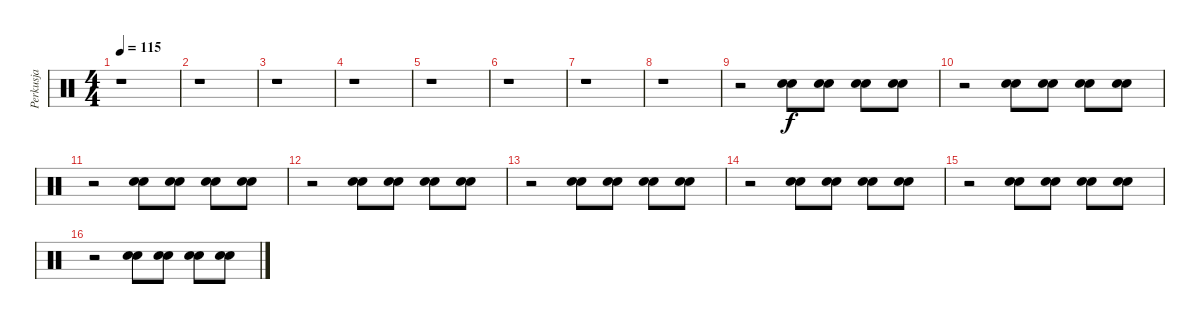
\track ("Perkusja" "Perkusja") {instrument percussion}
\staff {score}
\articulation defaults
\ts (4 4)
\tempo 115
\clef neutral
\ks c
r.1{dy f} |
r.1 |
r.1 |
r.1 |
r.1 |
r.1 |
r.1 |
r.1 |
r.2 ("Hand Clap (hit)" "Hand Clap (hit)").8 ("Hand Clap (hit)" "Hand Clap (hit)").8 ("Hand Clap (hit)" "Hand Clap (hit)").8 ("Hand Clap (hit)" "Hand Clap (hit)").8 |
r.2 ("Hand Clap (hit)" "Hand Clap (hit)").8 ("Hand Clap (hit)" "Hand Clap (hit)").8 ("Hand Clap (hit)" "Hand Clap (hit)").8 ("Hand Clap (hit)" "Hand Clap (hit)").8 |
r.2 ("Hand Clap (hit)" "Hand Clap (hit)").8 ("Hand Clap (hit)" "Hand Clap (hit)").8 ("Hand Clap (hit)" "Hand Clap (hit)").8 ("Hand Clap (hit)" "Hand Clap (hit)").8 |
r.2 ("Hand Clap (hit)" "Hand Clap (hit)").8 ("Hand Clap (hit)" "Hand Clap (hit)").8 ("Hand Clap (hit)" "Hand Clap (hit)").8 ("Hand Clap (hit)" "Hand Clap (hit)").8 |
r.2 ("Hand Clap (hit)" "Hand Clap (hit)").8 ("Hand Clap (hit)" "Hand Clap (hit)").8 ("Hand Clap (hit)" "Hand Clap (hit)").8 ("Hand Clap (hit)" "Hand Clap (hit)").8 |
r.2 ("Hand Clap (hit)" "Hand Clap (hit)").8 ("Hand Clap (hit)" "Hand Clap (hit)").8 ("Hand Clap (hit)" "Hand Clap (hit)").8 ("Hand Clap (hit)" "Hand Clap (hit)").8 |
r.2 ("Hand Clap (hit)" "Hand Clap (hit)").8 ("Hand Clap (hit)" "Hand Clap (hit)").8 ("Hand Clap (hit)" "Hand Clap (hit)").8 ("Hand Clap (hit)" "Hand Clap (hit)").8 |
r.2 ("Hand Clap (hit)" "Hand Clap (hit)").8 ("Hand Clap (hit)" "Hand Clap (hit)").8 ("Hand Clap (hit)" "Hand Clap (hit)").8 ("Hand Clap (hit)" "Hand Clap (hit)").8
